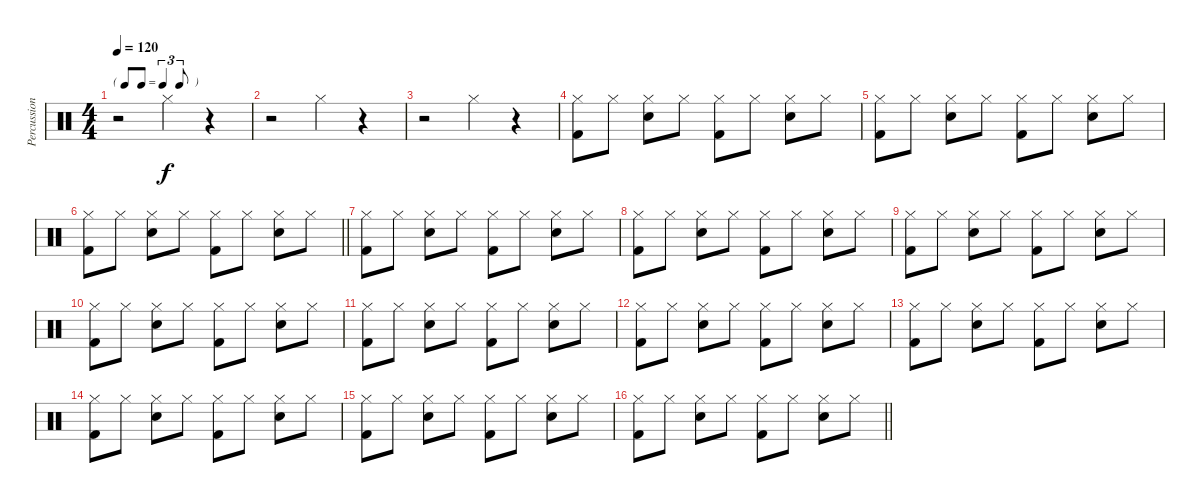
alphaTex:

\track ("Percussion" "Percussion") {instrument percussion}
\staff {score}
\articulation defaults
\ts (4 4)
\tf triplet8th
\tempo 120
\clef neutral
\ks c
r.2{dy f} "Hi-Hat (closed)".4 r.4 |
r.2 "Hi-Hat (closed)".4 r.4 |
r.2 "Hi-Hat (closed)".4 r.4 |
("Hi-Hat (closed)" "Kick (hit) 2").8 "Hi-Hat (closed)".8 ("Hi-Hat (closed)" "Snare (hit) 2").8 "Hi-Hat (closed)".8 ("Hi-Hat (closed)" "Kick (hit) 2").8 "Hi-Hat (closed)".8 ("Hi-Hat (closed)" "Snare (hit) 2").8 "Hi-Hat (closed)".8 |
("Hi-Hat (closed)" "Kick (hit) 2").8 "Hi-Hat (closed)".8 ("Hi-Hat (closed)" "Snare (hit) 2").8 "Hi-Hat (closed)".8 ("Hi-Hat (closed)" "Kick (hit) 2").8 "Hi-Hat (closed)".8 ("Hi-Hat (closed)" "Snare (hit) 2").8 "Hi-Hat (closed)".8 |
\barLineRight lightlight
("Hi-Hat (closed)" "Kick (hit) 2").8 "Hi-Hat (closed)".8 ("Hi-Hat (closed)" "Snare (hit) 2").8 "Hi-Hat (closed)".8 ("Hi-Hat (closed)" "Kick (hit) 2").8 "Hi-Hat (closed)".8 ("Hi-Hat (closed)" "Snare (hit) 2").8 "Hi-Hat (closed)".8 |
("Hi-Hat (closed)" "Kick (hit) 2").8 "Hi-Hat (closed)".8 ("Hi-Hat (closed)" "Snare (hit) 2").8 "Hi-Hat (closed)".8 ("Hi-Hat (closed)" "Kick (hit) 2").8 "Hi-Hat (closed)".8 ("Hi-Hat (closed)" "Snare (hit) 2").8 "Hi-Hat (closed)".8 |
("Hi-Hat (closed)" "Kick (hit) 2").8 "Hi-Hat (closed)".8 ("Hi-Hat (closed)" "Snare (hit) 2").8 "Hi-Hat (closed)".8 ("Hi-Hat (closed)" "Kick (hit) 2").8 "Hi-Hat (closed)".8 ("Hi-Hat (closed)" "Snare (hit) 2").8 "Hi-Hat (closed)".8 |
("Hi-Hat (closed)" "Kick (hit) 2").8 "Hi-Hat (closed)".8 ("Hi-Hat (closed)" "Snare (hit) 2").8 "Hi-Hat (closed)".8 ("Hi-Hat (closed)" "Kick (hit) 2").8 "Hi-Hat (closed)".8 ("Hi-Hat (closed)" "Snare (hit) 2").8 "Hi-Hat (closed)".8 |
("Hi-Hat (closed)" "Kick (hit) 2").8 "Hi-Hat (closed)".8 ("Hi-Hat (closed)" "Snare (hit) 2").8 "Hi-Hat (closed)".8 ("Hi-Hat (closed)" "Kick (hit) 2").8 "Hi-Hat (closed)".8 ("Hi-Hat (closed)" "Snare (hit) 2").8 "Hi-Hat (closed)".8 |
("Hi-Hat (closed)" "Kick (hit) 2").8 "Hi-Hat (closed)".8 ("Hi-Hat (closed)" "Snare (hit) 2").8 "Hi-Hat (closed)".8 ("Hi-Hat (closed)" "Kick (hit) 2").8 "Hi-Hat (closed)".8 ("Hi-Hat (closed)" "Snare (hit) 2").8 "Hi-Hat (closed)".8 |
("Hi-Hat (closed)" "Kick (hit) 2").8 "Hi-Hat (closed)".8 ("Hi-Hat (closed)" "Snare (hit) 2").8 "Hi-Hat (closed)".8 ("Hi-Hat (closed)" "Kick (hit) 2").8 "Hi-Hat (closed)".8 ("Hi-Hat (closed)" "Snare (hit) 2").8 "Hi-Hat (closed)".8 |
("Hi-Hat (closed)" "Kick (hit) 2").8 "Hi-Hat (closed)".8 ("Hi-Hat (closed)" "Snare (hit) 2").8 "Hi-Hat (closed)".8 ("Hi-Hat (closed)" "Kick (hit) 2").8 "Hi-Hat (closed)".8 ("Hi-Hat (closed)" "Snare (hit) 2").8 "Hi-Hat (closed)".8 |
("Hi-Hat (closed)" "Kick (hit) 2").8 "Hi-Hat (closed)".8 ("Hi-Hat (closed)" "Snare (hit) 2").8 "Hi-Hat (closed)".8 ("Hi-Hat (closed)" "Kick (hit) 2").8 "Hi-Hat (closed)".8 ("Hi-Hat (closed)" "Snare (hit) 2").8 "Hi-Hat (closed)".8 |
("Hi-Hat (closed)" "Kick (hit) 2").8 "Hi-Hat (closed)".8 ("Hi-Hat (closed)" "Snare (hit) 2").8 "Hi-Hat (closed)".8 ("Hi-Hat (closed)" "Kick (hit) 2").8 "Hi-Hat (closed)".8 ("Hi-Hat (closed)" "Snare (hit) 2").8 "Hi-Hat (closed)".8 |
\barLineRight lightlight
("Hi-Hat (closed)" "Kick (hit) 2").8 "Hi-Hat (closed)".8 ("Hi-Hat (closed)" "Snare (hit) 2").8 "Hi-Hat (closed)".8 ("Hi-Hat (closed)" "Kick (hit) 2").8 "Hi-Hat (closed)".8 ("Hi-Hat (closed)" "Snare (hit) 2").8 "Hi-Hat (closed)".8
